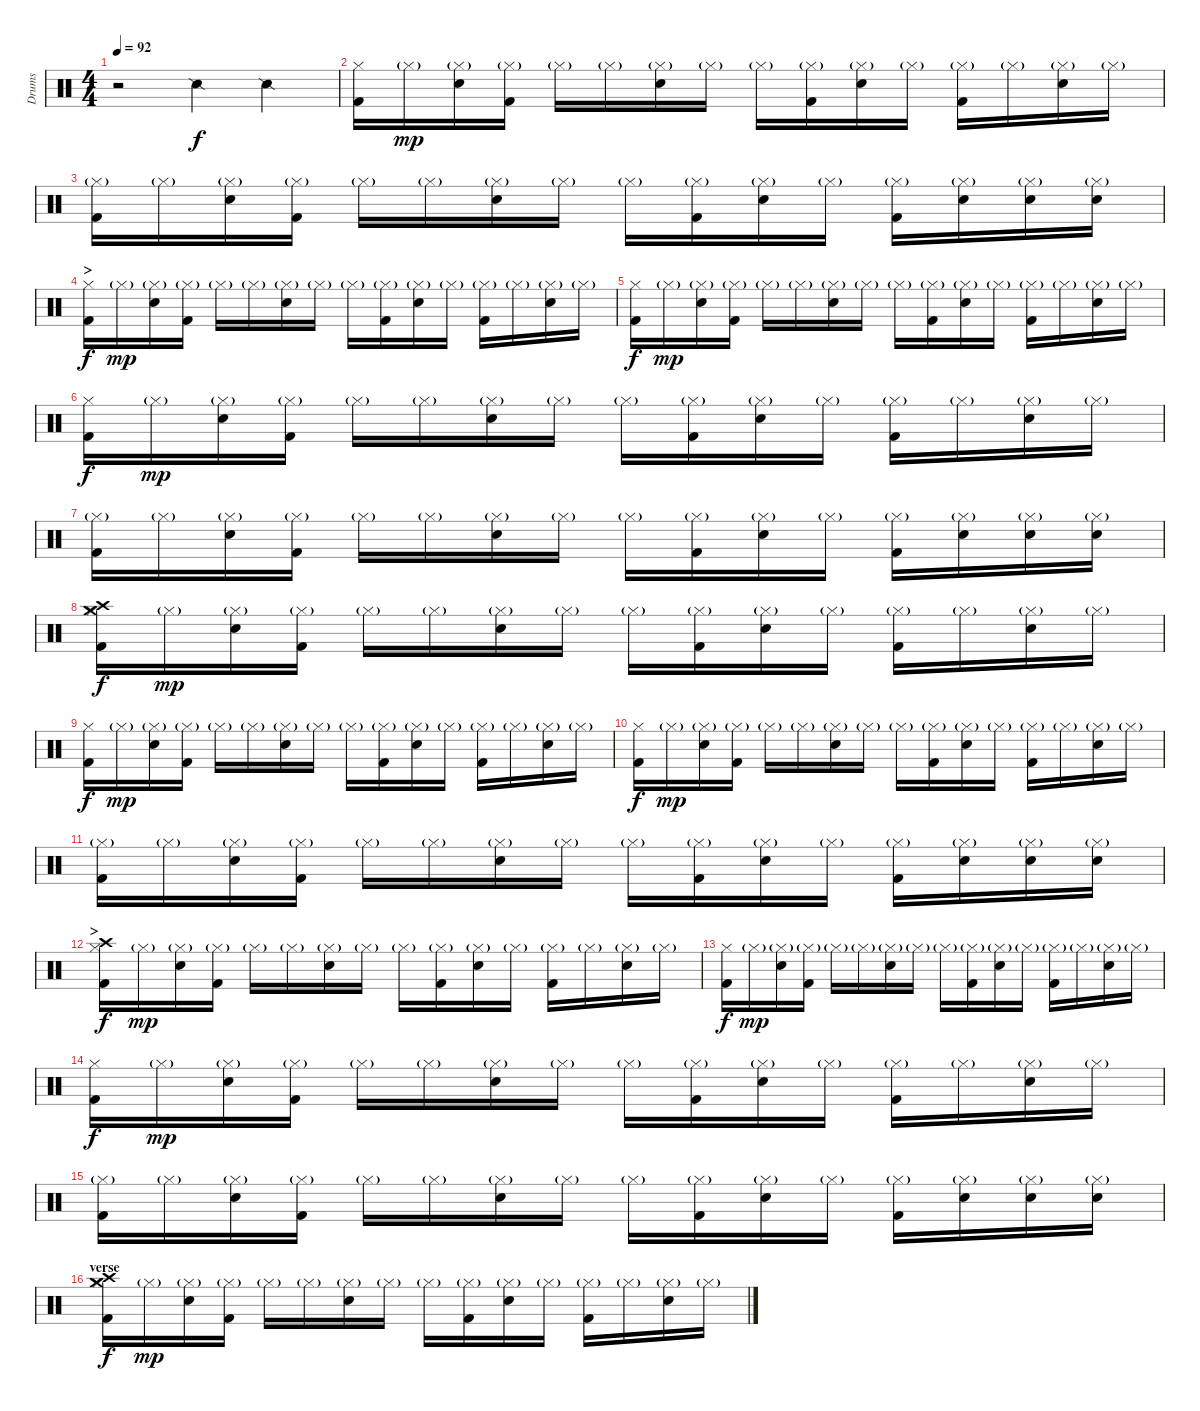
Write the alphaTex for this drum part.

\track ("Drums" "Drums") {instrument percussion}
\staff {score}
\articulation defaults
\ts (4 4)
\tempo 92
\clef neutral
\ks c
r.2{dy f} "Snare (side stick) 2".4 "Snare (side stick) 2".4 |
("Hi-Hat (closed)" "Kick (hit) 2").16 "Hi-Hat (closed)"{g}.16{dy mp} ("Hi-Hat (closed)"{g} "Snare (hit) 2").16 ("Hi-Hat (closed)"{g} "Kick (hit) 2").16 "Hi-Hat (closed)"{g}.16 "Hi-Hat (closed)"{g}.16 ("Hi-Hat (closed)"{g} "Snare (hit) 2").16 "Hi-Hat (closed)"{g}.16 "Hi-Hat (closed)"{g}.16 ("Hi-Hat (closed)"{g} "Kick (hit) 2").16 ("Hi-Hat (closed)"{g} "Snare (hit) 2").16 "Hi-Hat (closed)"{g}.16 ("Hi-Hat (closed)"{g} "Kick (hit) 2").16 "Hi-Hat (closed)"{g}.16 ("Hi-Hat (closed)"{g} "Snare (hit) 2").16 "Hi-Hat (closed)"{g}.16 |
("Hi-Hat (closed)"{g} "Kick (hit) 2").16 "Hi-Hat (closed)"{g}.16 ("Hi-Hat (closed)"{g} "Snare (hit) 2").16 ("Hi-Hat (closed)"{g} "Kick (hit) 2").16 "Hi-Hat (closed)"{g}.16 "Hi-Hat (closed)"{g}.16 ("Hi-Hat (closed)"{g} "Snare (hit) 2").16 "Hi-Hat (closed)"{g}.16 "Hi-Hat (closed)"{g}.16 ("Hi-Hat (closed)"{g} "Kick (hit) 2").16 ("Hi-Hat (closed)"{g} "Snare (hit) 2").16 "Hi-Hat (closed)"{g}.16 ("Hi-Hat (closed)"{g} "Kick (hit) 2").16 ("Hi-Hat (closed)"{g} "Snare (hit) 2").16 ("Hi-Hat (closed)"{g} "Snare (hit) 2").16 ("Hi-Hat (closed)"{g} "Snare (hit) 2").16 |
\section ("" ">")
("Hi-Hat (closed)" "Kick (hit) 2").16{dy f} "Hi-Hat (closed)"{g}.16{dy mp} ("Hi-Hat (closed)"{g} "Snare (hit) 2").16 ("Hi-Hat (closed)"{g} "Kick (hit) 2").16 "Hi-Hat (closed)"{g}.16 "Hi-Hat (closed)"{g}.16 ("Hi-Hat (closed)"{g} "Snare (hit) 2").16 "Hi-Hat (closed)"{g}.16 "Hi-Hat (closed)"{g}.16 ("Hi-Hat (closed)"{g} "Kick (hit) 2").16 ("Hi-Hat (closed)"{g} "Snare (hit) 2").16 "Hi-Hat (closed)"{g}.16 ("Hi-Hat (closed)"{g} "Kick (hit) 2").16 "Hi-Hat (closed)"{g}.16 ("Hi-Hat (closed)"{g} "Snare (hit) 2").16 "Hi-Hat (closed)"{g}.16 |
("Hi-Hat (closed)" "Kick (hit) 2").16{dy f} "Hi-Hat (closed)"{g}.16{dy mp} ("Hi-Hat (closed)"{g} "Snare (hit) 2").16 ("Hi-Hat (closed)"{g} "Kick (hit) 2").16 "Hi-Hat (closed)"{g}.16 "Hi-Hat (closed)"{g}.16 ("Hi-Hat (closed)"{g} "Snare (hit) 2").16 "Hi-Hat (closed)"{g}.16 "Hi-Hat (closed)"{g}.16 ("Hi-Hat (closed)"{g} "Kick (hit) 2").16 ("Hi-Hat (closed)"{g} "Snare (hit) 2").16 "Hi-Hat (closed)"{g}.16 ("Hi-Hat (closed)"{g} "Kick (hit) 2").16 "Hi-Hat (closed)"{g}.16 ("Hi-Hat (closed)"{g} "Snare (hit) 2").16 "Hi-Hat (closed)"{g}.16 |
("Hi-Hat (closed)" "Kick (hit) 2").16{dy f} "Hi-Hat (closed)"{g}.16{dy mp} ("Hi-Hat (closed)"{g} "Snare (hit) 2").16 ("Hi-Hat (closed)"{g} "Kick (hit) 2").16 "Hi-Hat (closed)"{g}.16 "Hi-Hat (closed)"{g}.16 ("Hi-Hat (closed)"{g} "Snare (hit) 2").16 "Hi-Hat (closed)"{g}.16 "Hi-Hat (closed)"{g}.16 ("Hi-Hat (closed)"{g} "Kick (hit) 2").16 ("Hi-Hat (closed)"{g} "Snare (hit) 2").16 "Hi-Hat (closed)"{g}.16 ("Hi-Hat (closed)"{g} "Kick (hit) 2").16 "Hi-Hat (closed)"{g}.16 ("Hi-Hat (closed)"{g} "Snare (hit) 2").16 "Hi-Hat (closed)"{g}.16 |
("Hi-Hat (closed)"{g} "Kick (hit) 2").16 "Hi-Hat (closed)"{g}.16 ("Hi-Hat (closed)"{g} "Snare (hit) 2").16 ("Hi-Hat (closed)"{g} "Kick (hit) 2").16 "Hi-Hat (closed)"{g}.16 "Hi-Hat (closed)"{g}.16 ("Hi-Hat (closed)"{g} "Snare (hit) 2").16 "Hi-Hat (closed)"{g}.16 "Hi-Hat (closed)"{g}.16 ("Hi-Hat (closed)"{g} "Kick (hit) 2").16 ("Hi-Hat (closed)"{g} "Snare (hit) 2").16 "Hi-Hat (closed)"{g}.16 ("Hi-Hat (closed)"{g} "Kick (hit) 2").16 ("Hi-Hat (closed)"{g} "Snare (hit) 2").16 ("Hi-Hat (closed)"{g} "Snare (hit) 2").16 ("Hi-Hat (closed)"{g} "Snare (hit) 2").16 |
("Hi-Hat (closed)" "Kick (hit) 2" "Crash medium (hit)" "Crash high (hit)").16{dy f} "Hi-Hat (closed)"{g}.16{dy mp} ("Hi-Hat (closed)"{g} "Snare (hit) 2").16 ("Hi-Hat (closed)"{g} "Kick (hit) 2").16 "Hi-Hat (closed)"{g}.16 "Hi-Hat (closed)"{g}.16 ("Hi-Hat (closed)"{g} "Snare (hit) 2").16 "Hi-Hat (closed)"{g}.16 "Hi-Hat (closed)"{g}.16 ("Hi-Hat (closed)"{g} "Kick (hit) 2").16 ("Hi-Hat (closed)"{g} "Snare (hit) 2").16 "Hi-Hat (closed)"{g}.16 ("Hi-Hat (closed)"{g} "Kick (hit) 2").16 "Hi-Hat (closed)"{g}.16 ("Hi-Hat (closed)"{g} "Snare (hit) 2").16 "Hi-Hat (closed)"{g}.16 |
("Hi-Hat (closed)" "Kick (hit) 2").16{dy f} "Hi-Hat (closed)"{g}.16{dy mp} ("Hi-Hat (closed)"{g} "Snare (hit) 2").16 ("Hi-Hat (closed)"{g} "Kick (hit) 2").16 "Hi-Hat (closed)"{g}.16 "Hi-Hat (closed)"{g}.16 ("Hi-Hat (closed)"{g} "Snare (hit) 2").16 "Hi-Hat (closed)"{g}.16 "Hi-Hat (closed)"{g}.16 ("Hi-Hat (closed)"{g} "Kick (hit) 2").16 ("Hi-Hat (closed)"{g} "Snare (hit) 2").16 "Hi-Hat (closed)"{g}.16 ("Hi-Hat (closed)"{g} "Kick (hit) 2").16 "Hi-Hat (closed)"{g}.16 ("Hi-Hat (closed)"{g} "Snare (hit) 2").16 "Hi-Hat (closed)"{g}.16 |
("Hi-Hat (closed)" "Kick (hit) 2").16{dy f} "Hi-Hat (closed)"{g}.16{dy mp} ("Hi-Hat (closed)"{g} "Snare (hit) 2").16 ("Hi-Hat (closed)"{g} "Kick (hit) 2").16 "Hi-Hat (closed)"{g}.16 "Hi-Hat (closed)"{g}.16 ("Hi-Hat (closed)"{g} "Snare (hit) 2").16 "Hi-Hat (closed)"{g}.16 "Hi-Hat (closed)"{g}.16 ("Hi-Hat (closed)"{g} "Kick (hit) 2").16 ("Hi-Hat (closed)"{g} "Snare (hit) 2").16 "Hi-Hat (closed)"{g}.16 ("Hi-Hat (closed)"{g} "Kick (hit) 2").16 "Hi-Hat (closed)"{g}.16 ("Hi-Hat (closed)"{g} "Snare (hit) 2").16 "Hi-Hat (closed)"{g}.16 |
("Hi-Hat (closed)"{g} "Kick (hit) 2").16 "Hi-Hat (closed)"{g}.16 ("Hi-Hat (closed)"{g} "Snare (hit) 2").16 ("Hi-Hat (closed)"{g} "Kick (hit) 2").16 "Hi-Hat (closed)"{g}.16 "Hi-Hat (closed)"{g}.16 ("Hi-Hat (closed)"{g} "Snare (hit) 2").16 "Hi-Hat (closed)"{g}.16 "Hi-Hat (closed)"{g}.16 ("Hi-Hat (closed)"{g} "Kick (hit) 2").16 ("Hi-Hat (closed)"{g} "Snare (hit) 2").16 "Hi-Hat (closed)"{g}.16 ("Hi-Hat (closed)"{g} "Kick (hit) 2").16 ("Hi-Hat (closed)"{g} "Snare (hit) 2").16 ("Hi-Hat (closed)"{g} "Snare (hit) 2").16 ("Hi-Hat (closed)"{g} "Snare (hit) 2").16 |
\section ("" ">")
("Hi-Hat (closed)" "Kick (hit) 2" "Crash high (hit)").16{dy f} "Hi-Hat (closed)"{g}.16{dy mp} ("Hi-Hat (closed)"{g} "Snare (hit) 2").16 ("Hi-Hat (closed)"{g} "Kick (hit) 2").16 "Hi-Hat (closed)"{g}.16 "Hi-Hat (closed)"{g}.16 ("Hi-Hat (closed)"{g} "Snare (hit) 2").16 "Hi-Hat (closed)"{g}.16 "Hi-Hat (closed)"{g}.16 ("Hi-Hat (closed)"{g} "Kick (hit) 2").16 ("Hi-Hat (closed)"{g} "Snare (hit) 2").16 "Hi-Hat (closed)"{g}.16 ("Hi-Hat (closed)"{g} "Kick (hit) 2").16 "Hi-Hat (closed)"{g}.16 ("Hi-Hat (closed)"{g} "Snare (hit) 2").16 "Hi-Hat (closed)"{g}.16 |
("Hi-Hat (closed)" "Kick (hit) 2").16{dy f} "Hi-Hat (closed)"{g}.16{dy mp} ("Hi-Hat (closed)"{g} "Snare (hit) 2").16 ("Hi-Hat (closed)"{g} "Kick (hit) 2").16 "Hi-Hat (closed)"{g}.16 "Hi-Hat (closed)"{g}.16 ("Hi-Hat (closed)"{g} "Snare (hit) 2").16 "Hi-Hat (closed)"{g}.16 "Hi-Hat (closed)"{g}.16 ("Hi-Hat (closed)"{g} "Kick (hit) 2").16 ("Hi-Hat (closed)"{g} "Snare (hit) 2").16 "Hi-Hat (closed)"{g}.16 ("Hi-Hat (closed)"{g} "Kick (hit) 2").16 "Hi-Hat (closed)"{g}.16 ("Hi-Hat (closed)"{g} "Snare (hit) 2").16 "Hi-Hat (closed)"{g}.16 |
("Hi-Hat (closed)" "Kick (hit) 2").16{dy f} "Hi-Hat (closed)"{g}.16{dy mp} ("Hi-Hat (closed)"{g} "Snare (hit) 2").16 ("Hi-Hat (closed)"{g} "Kick (hit) 2").16 "Hi-Hat (closed)"{g}.16 "Hi-Hat (closed)"{g}.16 ("Hi-Hat (closed)"{g} "Snare (hit) 2").16 "Hi-Hat (closed)"{g}.16 "Hi-Hat (closed)"{g}.16 ("Hi-Hat (closed)"{g} "Kick (hit) 2").16 ("Hi-Hat (closed)"{g} "Snare (hit) 2").16 "Hi-Hat (closed)"{g}.16 ("Hi-Hat (closed)"{g} "Kick (hit) 2").16 "Hi-Hat (closed)"{g}.16 ("Hi-Hat (closed)"{g} "Snare (hit) 2").16 "Hi-Hat (closed)"{g}.16 |
("Hi-Hat (closed)"{g} "Kick (hit) 2").16 "Hi-Hat (closed)"{g}.16 ("Hi-Hat (closed)"{g} "Snare (hit) 2").16 ("Hi-Hat (closed)"{g} "Kick (hit) 2").16 "Hi-Hat (closed)"{g}.16 "Hi-Hat (closed)"{g}.16 ("Hi-Hat (closed)"{g} "Snare (hit) 2").16 "Hi-Hat (closed)"{g}.16 "Hi-Hat (closed)"{g}.16 ("Hi-Hat (closed)"{g} "Kick (hit) 2").16 ("Hi-Hat (closed)"{g} "Snare (hit) 2").16 "Hi-Hat (closed)"{g}.16 ("Hi-Hat (closed)"{g} "Kick (hit) 2").16 ("Hi-Hat (closed)"{g} "Snare (hit) 2").16 ("Hi-Hat (closed)"{g} "Snare (hit) 2").16 ("Hi-Hat (closed)"{g} "Snare (hit) 2").16 |
\section ("" "verse")
("Hi-Hat (closed)" "Kick (hit) 2" "Crash medium (hit)" "Crash high (hit)").16{dy f} "Hi-Hat (closed)"{g}.16{dy mp} ("Hi-Hat (closed)"{g} "Snare (hit) 2").16 ("Hi-Hat (closed)"{g} "Kick (hit) 2").16 "Hi-Hat (closed)"{g}.16 "Hi-Hat (closed)"{g}.16 ("Hi-Hat (closed)"{g} "Snare (hit) 2").16 "Hi-Hat (closed)"{g}.16 "Hi-Hat (closed)"{g}.16 ("Hi-Hat (closed)"{g} "Kick (hit) 2").16 ("Hi-Hat (closed)"{g} "Snare (hit) 2").16 "Hi-Hat (closed)"{g}.16 ("Hi-Hat (closed)"{g} "Kick (hit) 2").16 "Hi-Hat (closed)"{g}.16 ("Hi-Hat (closed)"{g} "Snare (hit) 2").16 "Hi-Hat (closed)"{g}.16
